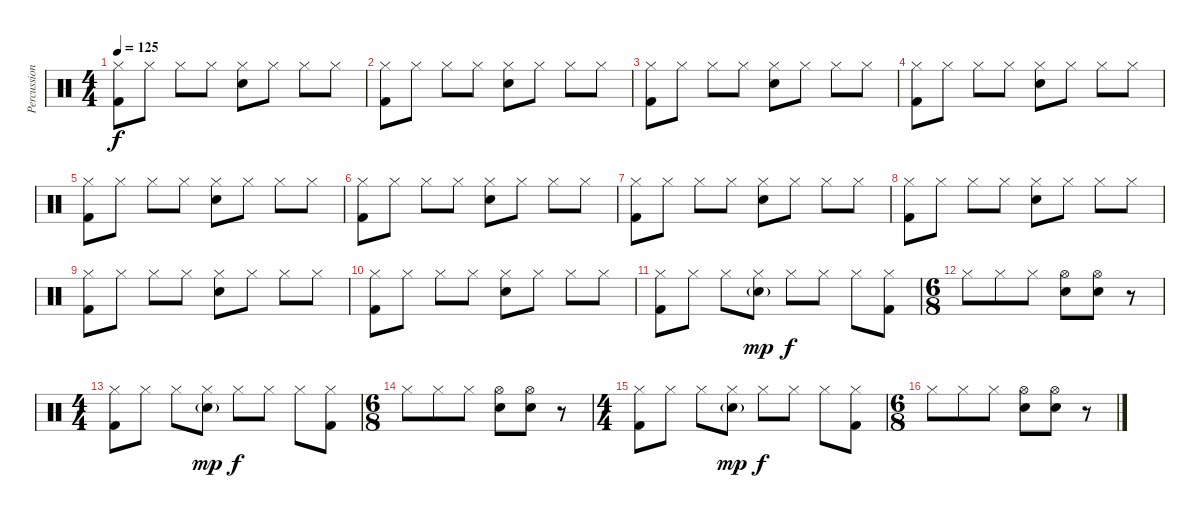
\track ("Percussion" "Percussion") {instrument percussion}
\staff {score}
\articulation defaults
\ts (4 4)
\tempo 125
\clef neutral
\ks c
("Hi-Hat (closed)" "Kick (hit) 2").8{dy f} "Hi-Hat (closed)".8 "Hi-Hat (closed)".8 "Hi-Hat (closed)".8 ("Hi-Hat (closed)" "Electric Snare (hit)").8 "Hi-Hat (closed)".8 "Hi-Hat (closed)".8 "Hi-Hat (closed)".8 |
("Hi-Hat (closed)" "Kick (hit) 2").8 "Hi-Hat (closed)".8 "Hi-Hat (closed)".8 "Hi-Hat (closed)".8 ("Hi-Hat (closed)" "Electric Snare (hit)").8 "Hi-Hat (closed)".8 "Hi-Hat (closed)".8 "Hi-Hat (closed)".8 |
("Hi-Hat (closed)" "Kick (hit) 2").8 "Hi-Hat (closed)".8 "Hi-Hat (closed)".8 "Hi-Hat (closed)".8 ("Hi-Hat (closed)" "Electric Snare (hit)").8 "Hi-Hat (closed)".8 "Hi-Hat (closed)".8 "Hi-Hat (closed)".8 |
("Hi-Hat (closed)" "Kick (hit) 2").8 "Hi-Hat (closed)".8 "Hi-Hat (closed)".8 "Hi-Hat (closed)".8 ("Hi-Hat (closed)" "Electric Snare (hit)").8 "Hi-Hat (closed)".8 "Hi-Hat (closed)".8 "Hi-Hat (closed)".8 |
("Hi-Hat (closed)" "Kick (hit) 2").8 "Hi-Hat (closed)".8 "Hi-Hat (closed)".8 "Hi-Hat (closed)".8 ("Hi-Hat (closed)" "Electric Snare (hit)").8 "Hi-Hat (closed)".8 "Hi-Hat (closed)".8 "Hi-Hat (closed)".8 |
("Hi-Hat (closed)" "Kick (hit) 2").8 "Hi-Hat (closed)".8 "Hi-Hat (closed)".8 "Hi-Hat (closed)".8 ("Hi-Hat (closed)" "Electric Snare (hit)").8 "Hi-Hat (closed)".8 "Hi-Hat (closed)".8 "Hi-Hat (closed)".8 |
("Hi-Hat (closed)" "Kick (hit) 2").8 "Hi-Hat (closed)".8 "Hi-Hat (closed)".8 "Hi-Hat (closed)".8 ("Hi-Hat (closed)" "Electric Snare (hit)").8 "Hi-Hat (closed)".8 "Hi-Hat (closed)".8 "Hi-Hat (closed)".8 |
("Hi-Hat (closed)" "Kick (hit) 2").8 "Hi-Hat (closed)".8 "Hi-Hat (closed)".8 "Hi-Hat (closed)".8 ("Hi-Hat (closed)" "Electric Snare (hit)").8 "Hi-Hat (closed)".8 "Hi-Hat (closed)".8 "Hi-Hat (closed)".8 |
("Hi-Hat (closed)" "Kick (hit) 2").8 "Hi-Hat (closed)".8 "Hi-Hat (closed)".8 "Hi-Hat (closed)".8 ("Hi-Hat (closed)" "Electric Snare (hit)").8 "Hi-Hat (closed)".8 "Hi-Hat (closed)".8 "Hi-Hat (closed)".8 |
("Hi-Hat (closed)" "Kick (hit) 2").8 "Hi-Hat (closed)".8 "Hi-Hat (closed)".8 "Hi-Hat (closed)".8 ("Hi-Hat (closed)" "Electric Snare (hit)").8 "Hi-Hat (closed)".8 "Hi-Hat (closed)".8 "Hi-Hat (closed)".8 |
("Hi-Hat (closed)" "Kick (hit) 2").8 "Hi-Hat (closed)".8 "Hi-Hat (closed)".8 ("Hi-Hat (closed)" "Electric Snare (hit)"{g}).8{dy mp} "Hi-Hat (closed)".8{dy f} "Hi-Hat (closed)".8 "Hi-Hat (closed)".8 ("Hi-Hat (closed)" "Kick (hit) 2").8 |
\ts (6 8)
"Hi-Hat (closed)".8 "Hi-Hat (closed)".8 "Hi-Hat (closed)".8 ("Hi-Hat (open)" "Electric Snare (hit)").8 ("Hi-Hat (open)" "Electric Snare (hit)").8 r.8 |
\ts (4 4)
("Hi-Hat (closed)" "Kick (hit) 2").8 "Hi-Hat (closed)".8 "Hi-Hat (closed)".8 ("Hi-Hat (closed)" "Electric Snare (hit)"{g}).8{dy mp} "Hi-Hat (closed)".8{dy f} "Hi-Hat (closed)".8 "Hi-Hat (closed)".8 ("Hi-Hat (closed)" "Kick (hit) 2").8 |
\ts (6 8)
"Hi-Hat (closed)".8 "Hi-Hat (closed)".8 "Hi-Hat (closed)".8 ("Hi-Hat (open)" "Electric Snare (hit)").8 ("Hi-Hat (open)" "Electric Snare (hit)").8 r.8 |
\ts (4 4)
("Hi-Hat (closed)" "Kick (hit) 2").8 "Hi-Hat (closed)".8 "Hi-Hat (closed)".8 ("Hi-Hat (closed)" "Electric Snare (hit)"{g}).8{dy mp} "Hi-Hat (closed)".8{dy f} "Hi-Hat (closed)".8 "Hi-Hat (closed)".8 ("Hi-Hat (closed)" "Kick (hit) 2").8 |
\ts (6 8)
"Hi-Hat (closed)".8 "Hi-Hat (closed)".8 "Hi-Hat (closed)".8 ("Hi-Hat (open)" "Electric Snare (hit)").8 ("Hi-Hat (open)" "Electric Snare (hit)").8 r.8
